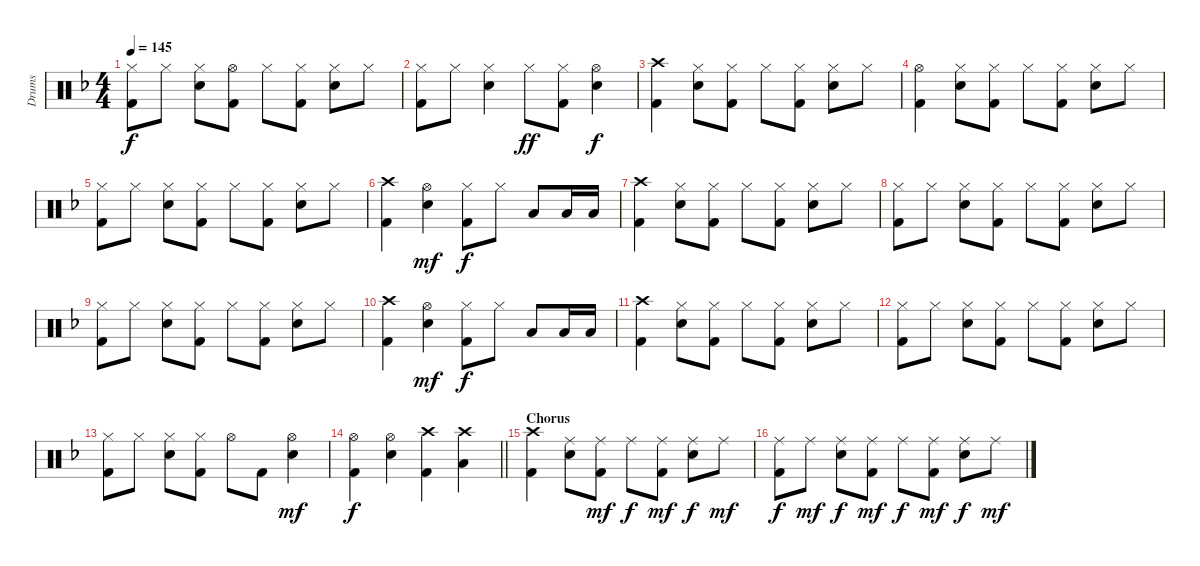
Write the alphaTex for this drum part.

\track ("Drums" "Drums") {instrument percussion}
\staff {score}
\articulation defaults
\ts (4 4)
\tempo 145
\clef neutral
\ks f
("Hi-Hat (closed)" "Kick (hit) 2").8{dy f} "Hi-Hat (closed)".8 ("Hi-Hat (closed)" "Electric Snare (hit)").8 ("Hi-Hat (open)" "Kick (hit) 2").8 "Hi-Hat (closed)".8 ("Hi-Hat (closed)" "Kick (hit) 2").8 ("Hi-Hat (closed)" "Electric Snare (hit)").8 "Hi-Hat (closed)".8 |
("Hi-Hat (closed)" "Kick (hit) 2").8 "Hi-Hat (closed)".8 ("Hi-Hat (closed)" "Electric Snare (hit)").4 "Hi-Hat (closed)".8{dy ff} ("Hi-Hat (closed)" "Kick (hit) 2").8 ("Hi-Hat (open)" "Electric Snare (hit)").4{dy f} |
("Crash high (hit)" "Kick (hit) 2").4 ("Hi-Hat (closed)" "Electric Snare (hit)").8 ("Hi-Hat (closed)" "Kick (hit) 2").8 "Hi-Hat (closed)".8 ("Hi-Hat (closed)" "Kick (hit) 2").8 ("Hi-Hat (closed)" "Electric Snare (hit)").8 "Hi-Hat (closed)".8 |
("Hi-Hat (open)" "Kick (hit) 2").4 ("Hi-Hat (closed)" "Electric Snare (hit)").8 ("Hi-Hat (closed)" "Kick (hit) 2").8 "Hi-Hat (closed)".8 ("Hi-Hat (closed)" "Kick (hit) 2").8 ("Hi-Hat (closed)" "Electric Snare (hit)").8 "Hi-Hat (closed)".8 |
("Hi-Hat (closed)" "Kick (hit) 2").8 "Hi-Hat (closed)".8 ("Hi-Hat (closed)" "Electric Snare (hit)").8 ("Hi-Hat (closed)" "Kick (hit) 2").8 "Hi-Hat (closed)".8 ("Hi-Hat (closed)" "Kick (hit) 2").8 ("Hi-Hat (closed)" "Electric Snare (hit)").8 "Hi-Hat (closed)".8 |
("Crash high (hit)" "Kick (hit) 2").4 ("Hi-Hat (open)" "Electric Snare (hit)").4{dy mf} ("Hi-Hat (closed)" "Kick (hit) 2").8{dy f} "Hi-Hat (closed)".8 "Low Tom (hit)".8 "Low Tom (hit)".16 "Low Tom (hit)".16 |
("Crash high (hit)" "Kick (hit) 2").4 ("Hi-Hat (closed)" "Electric Snare (hit)").8 ("Hi-Hat (closed)" "Kick (hit) 2").8 "Hi-Hat (closed)".8 ("Hi-Hat (closed)" "Kick (hit) 2").8 ("Hi-Hat (closed)" "Electric Snare (hit)").8 "Hi-Hat (closed)".8 |
("Hi-Hat (closed)" "Kick (hit) 2").8 "Hi-Hat (closed)".8 ("Hi-Hat (closed)" "Electric Snare (hit)").8 ("Hi-Hat (closed)" "Kick (hit) 2").8 "Hi-Hat (closed)".8 ("Hi-Hat (closed)" "Kick (hit) 2").8 ("Hi-Hat (closed)" "Electric Snare (hit)").8 "Hi-Hat (closed)".8 |
("Hi-Hat (closed)" "Kick (hit) 2").8 "Hi-Hat (closed)".8 ("Hi-Hat (closed)" "Electric Snare (hit)").8 ("Hi-Hat (closed)" "Kick (hit) 2").8 "Hi-Hat (closed)".8 ("Hi-Hat (closed)" "Kick (hit) 2").8 ("Hi-Hat (closed)" "Electric Snare (hit)").8 "Hi-Hat (closed)".8 |
("Crash high (hit)" "Kick (hit) 2").4 ("Hi-Hat (open)" "Electric Snare (hit)").4{dy mf} ("Hi-Hat (closed)" "Kick (hit) 2").8{dy f} "Hi-Hat (closed)".8 "Low Tom (hit)".8 "Low Tom (hit)".16 "Low Tom (hit)".16 |
("Crash high (hit)" "Kick (hit) 2").4 ("Hi-Hat (closed)" "Electric Snare (hit)").8 ("Hi-Hat (closed)" "Kick (hit) 2").8 "Hi-Hat (closed)".8 ("Hi-Hat (closed)" "Kick (hit) 2").8 ("Hi-Hat (closed)" "Electric Snare (hit)").8 "Hi-Hat (closed)".8 |
("Hi-Hat (closed)" "Kick (hit) 2").8 "Hi-Hat (closed)".8 ("Hi-Hat (closed)" "Electric Snare (hit)").8 ("Hi-Hat (closed)" "Kick (hit) 2").8 "Hi-Hat (closed)".8 ("Hi-Hat (closed)" "Kick (hit) 2").8 ("Hi-Hat (closed)" "Electric Snare (hit)").8 "Hi-Hat (closed)".8 |
("Hi-Hat (closed)" "Kick (hit) 2").8 "Hi-Hat (closed)".8 ("Hi-Hat (closed)" "Electric Snare (hit)").8 ("Hi-Hat (closed)" "Kick (hit) 2").8 "Hi-Hat (open)".8 "Kick (hit) 2".8 ("Hi-Hat (open)" "Electric Snare (hit)").4{dy mf} |
\barLineRight lightlight
("Hi-Hat (open)" "Kick (hit) 2").4{dy f} ("Hi-Hat (open)" "Electric Snare (hit)").4 ("Crash high (hit)" "Kick (hit) 2").4 ("Crash high (hit)" "Low Tom (hit)").4 |
\section ("" "Chorus")
("Crash high (hit)" "Kick (hit) 2").4 ("Ride (middle)" "Electric Snare (hit)").8 ("Ride (middle)" "Kick (hit) 2").8{dy mf} "Ride (middle)".8{dy f} ("Ride (middle)" "Kick (hit) 2").8{dy mf} ("Ride (middle)" "Electric Snare (hit)").8{dy f} "Ride (middle)".8{dy mf} |
("Ride (middle)" "Kick (hit) 2").8{dy f} "Ride (middle)".8{dy mf} ("Ride (middle)" "Electric Snare (hit)").8{dy f} ("Ride (middle)" "Kick (hit) 2").8{dy mf} "Ride (middle)".8{dy f} ("Ride (middle)" "Kick (hit) 2").8{dy mf} ("Ride (middle)" "Electric Snare (hit)").8{dy f} "Ride (middle)".8{dy mf}
